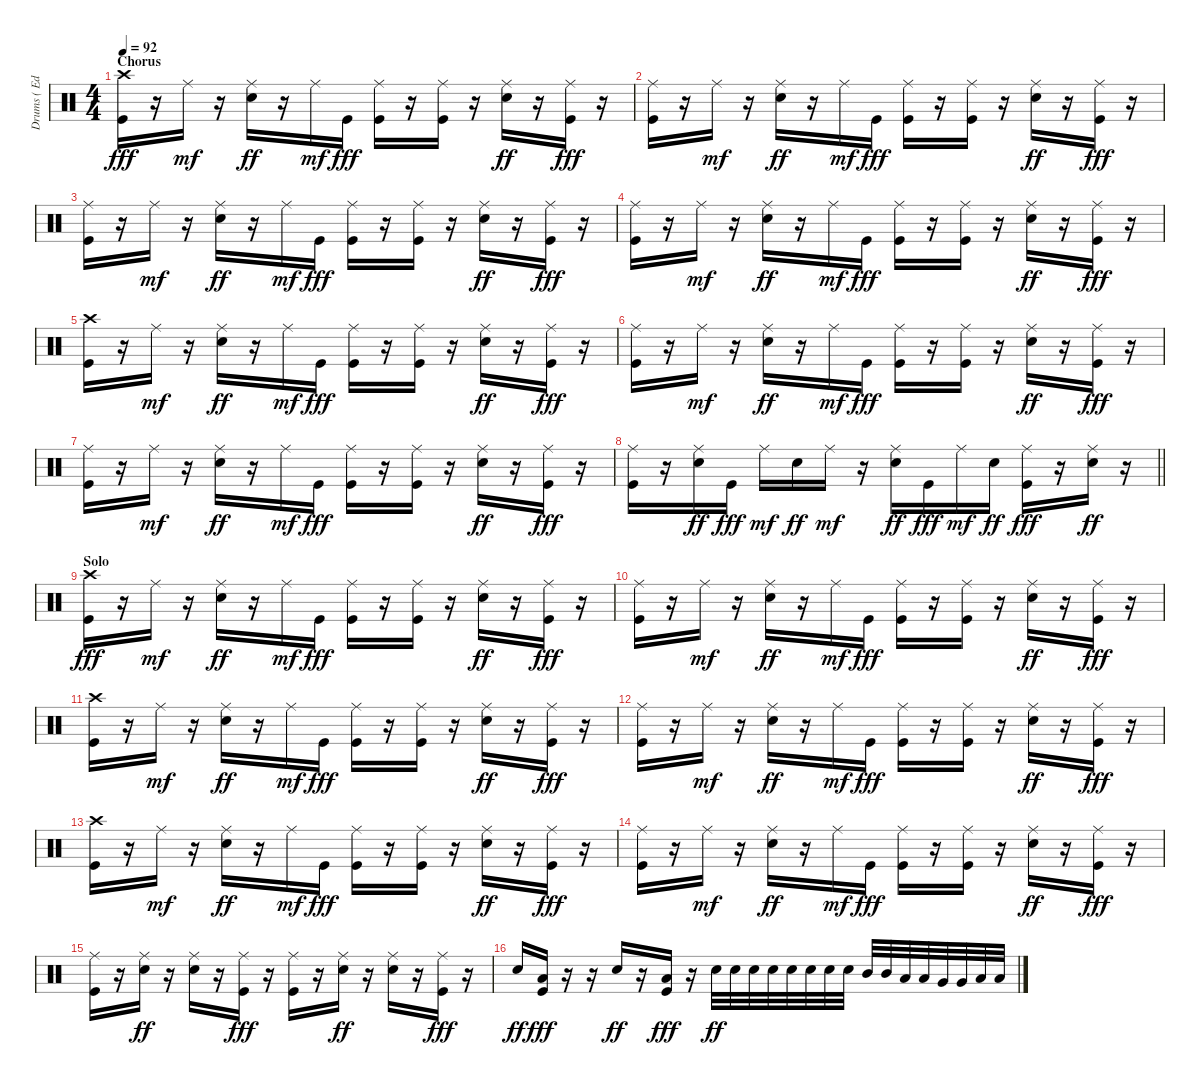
\track ("Drums ( Edward O'Brien )" "Drums ( Ed") {instrument percussion}
\staff {score}
\articulation defaults
\ts (4 4)
\section ("" "Chorus")
\tempo 92
\clef neutral
\ks c
("Crash high (hit)" "Kick (hit)").16{dy fff} r.16 "Ride (middle)".16{dy mf} r.16 ("Ride (middle)" "Electric Snare (hit)").16{dy ff} r.16 "Ride (middle)".16{dy mf} "Kick (hit)".16{dy fff} ("Ride (middle)" "Kick (hit)").16 r.16 ("Ride (middle)" "Kick (hit)").16 r.16 ("Ride (middle)" "Electric Snare (hit)").16{dy ff} r.16 ("Ride (middle)" "Kick (hit)").16{dy fff} r.16 |
("Ride (middle)" "Kick (hit)").16 r.16 "Ride (middle)".16{dy mf} r.16 ("Ride (middle)" "Electric Snare (hit)").16{dy ff} r.16 "Ride (middle)".16{dy mf} "Kick (hit)".16{dy fff} ("Ride (middle)" "Kick (hit)").16 r.16 ("Ride (middle)" "Kick (hit)").16 r.16 ("Ride (middle)" "Electric Snare (hit)").16{dy ff} r.16 ("Ride (middle)" "Kick (hit)").16{dy fff} r.16 |
("Ride (middle)" "Kick (hit)").16 r.16 "Ride (middle)".16{dy mf} r.16 ("Ride (middle)" "Electric Snare (hit)").16{dy ff} r.16 "Ride (middle)".16{dy mf} "Kick (hit)".16{dy fff} ("Ride (middle)" "Kick (hit)").16 r.16 ("Ride (middle)" "Kick (hit)").16 r.16 ("Ride (middle)" "Electric Snare (hit)").16{dy ff} r.16 ("Ride (middle)" "Kick (hit)").16{dy fff} r.16 |
("Ride (middle)" "Kick (hit)").16 r.16 "Ride (middle)".16{dy mf} r.16 ("Ride (middle)" "Electric Snare (hit)").16{dy ff} r.16 "Ride (middle)".16{dy mf} "Kick (hit)".16{dy fff} ("Ride (middle)" "Kick (hit)").16 r.16 ("Ride (middle)" "Kick (hit)").16 r.16 ("Ride (middle)" "Electric Snare (hit)").16{dy ff} r.16 ("Ride (middle)" "Kick (hit)").16{dy fff} r.16 |
("Crash high (hit)" "Kick (hit)").16 r.16 "Ride (middle)".16{dy mf} r.16 ("Ride (middle)" "Electric Snare (hit)").16{dy ff} r.16 "Ride (middle)".16{dy mf} "Kick (hit)".16{dy fff} ("Ride (middle)" "Kick (hit)").16 r.16 ("Ride (middle)" "Kick (hit)").16 r.16 ("Ride (middle)" "Electric Snare (hit)").16{dy ff} r.16 ("Ride (middle)" "Kick (hit)").16{dy fff} r.16 |
("Ride (middle)" "Kick (hit)").16 r.16 "Ride (middle)".16{dy mf} r.16 ("Ride (middle)" "Electric Snare (hit)").16{dy ff} r.16 "Ride (middle)".16{dy mf} "Kick (hit)".16{dy fff} ("Ride (middle)" "Kick (hit)").16 r.16 ("Ride (middle)" "Kick (hit)").16 r.16 ("Ride (middle)" "Electric Snare (hit)").16{dy ff} r.16 ("Ride (middle)" "Kick (hit)").16{dy fff} r.16 |
("Ride (middle)" "Kick (hit)").16 r.16 "Ride (middle)".16{dy mf} r.16 ("Ride (middle)" "Electric Snare (hit)").16{dy ff} r.16 "Ride (middle)".16{dy mf} "Kick (hit)".16{dy fff} ("Ride (middle)" "Kick (hit)").16 r.16 ("Ride (middle)" "Kick (hit)").16 r.16 ("Ride (middle)" "Electric Snare (hit)").16{dy ff} r.16 ("Ride (middle)" "Kick (hit)").16{dy fff} r.16 |
\barLineRight lightlight
("Ride (middle)" "Kick (hit)").16 r.16 ("Ride (middle)" "Electric Snare (hit)").16{dy ff} "Kick (hit)".16{dy fff} "Ride (middle)".16{dy mf} "Electric Snare (hit)".16{dy ff} "Ride (middle)".16{dy mf} r.16 ("Ride (middle)" "Electric Snare (hit)").16{dy ff} "Kick (hit)".16{dy fff} "Ride (middle)".16{dy mf} "Electric Snare (hit)".16{dy ff} ("Ride (middle)" "Kick (hit)").16{dy fff} r.16 ("Ride (middle)" "Electric Snare (hit)").16{dy ff} r.16 |
\section ("" "Solo")
("Crash high (hit)" "Kick (hit)").16{dy fff} r.16 "Ride (middle)".16{dy mf} r.16 ("Ride (middle)" "Electric Snare (hit)").16{dy ff} r.16 "Ride (middle)".16{dy mf} "Kick (hit)".16{dy fff} ("Ride (middle)" "Kick (hit)").16 r.16 ("Ride (middle)" "Kick (hit)").16 r.16 ("Ride (middle)" "Electric Snare (hit)").16{dy ff} r.16 ("Ride (middle)" "Kick (hit)").16{dy fff} r.16 |
("Ride (middle)" "Kick (hit)").16 r.16 "Ride (middle)".16{dy mf} r.16 ("Ride (middle)" "Electric Snare (hit)").16{dy ff} r.16 "Ride (middle)".16{dy mf} "Kick (hit)".16{dy fff} ("Ride (middle)" "Kick (hit)").16 r.16 ("Ride (middle)" "Kick (hit)").16 r.16 ("Ride (middle)" "Electric Snare (hit)").16{dy ff} r.16 ("Ride (middle)" "Kick (hit)").16{dy fff} r.16 |
("Crash high (hit)" "Kick (hit)").16 r.16 "Ride (middle)".16{dy mf} r.16 ("Ride (middle)" "Electric Snare (hit)").16{dy ff} r.16 "Ride (middle)".16{dy mf} "Kick (hit)".16{dy fff} ("Ride (middle)" "Kick (hit)").16 r.16 ("Ride (middle)" "Kick (hit)").16 r.16 ("Ride (middle)" "Electric Snare (hit)").16{dy ff} r.16 ("Ride (middle)" "Kick (hit)").16{dy fff} r.16 |
("Ride (middle)" "Kick (hit)").16 r.16 "Ride (middle)".16{dy mf} r.16 ("Ride (middle)" "Electric Snare (hit)").16{dy ff} r.16 "Ride (middle)".16{dy mf} "Kick (hit)".16{dy fff} ("Ride (middle)" "Kick (hit)").16 r.16 ("Ride (middle)" "Kick (hit)").16 r.16 ("Ride (middle)" "Electric Snare (hit)").16{dy ff} r.16 ("Ride (middle)" "Kick (hit)").16{dy fff} r.16 |
("Crash high (hit)" "Kick (hit)").16 r.16 "Ride (middle)".16{dy mf} r.16 ("Ride (middle)" "Electric Snare (hit)").16{dy ff} r.16 "Ride (middle)".16{dy mf} "Kick (hit)".16{dy fff} ("Ride (middle)" "Kick (hit)").16 r.16 ("Ride (middle)" "Kick (hit)").16 r.16 ("Ride (middle)" "Electric Snare (hit)").16{dy ff} r.16 ("Ride (middle)" "Kick (hit)").16{dy fff} r.16 |
("Ride (middle)" "Kick (hit)").16 r.16 "Ride (middle)".16{dy mf} r.16 ("Ride (middle)" "Electric Snare (hit)").16{dy ff} r.16 "Ride (middle)".16{dy mf} "Kick (hit)".16{dy fff} ("Ride (middle)" "Kick (hit)").16 r.16 ("Ride (middle)" "Kick (hit)").16 r.16 ("Ride (middle)" "Electric Snare (hit)").16{dy ff} r.16 ("Ride (middle)" "Kick (hit)").16{dy fff} r.16 |
("Ride (middle)" "Kick (hit)").16 r.16 ("Ride (middle)" "Electric Snare (hit)").16{dy ff} r.16 ("Ride (middle)" "Electric Snare (hit)").16 r.16 ("Ride (middle)" "Kick (hit)").16{dy fff} r.16 ("Ride (middle)" "Kick (hit)").16 r.16 ("Ride (middle)" "Electric Snare (hit)").16{dy ff} r.16 ("Ride (middle)" "Electric Snare (hit)").16 r.16 ("Ride (middle)" "Kick (hit)").16{dy fff} r.16 |
"Electric Snare (hit)".16{dy ff} ("Low Floor Tom (hit)" "Kick (hit)").16{dy fff} r.16 r.16 "Electric Snare (hit)".16{dy ff} r.16 ("Low Floor Tom (hit)" "Kick (hit)").16{dy fff} r.16 "Electric Snare (hit)".32{dy ff} "Electric Snare (hit)".32 "Electric Snare (hit)".32 "Electric Snare (hit)".32 "Electric Snare (hit)".32 "Electric Snare (hit)".32 "Electric Snare (hit)".32 "Electric Snare (hit)".32 "Mid Tom (hit)".32 "Mid Tom (hit)".32 "Low Tom (hit)".32 "Low Tom (hit)".32 "Very Low Tom (hit)".32 "Very Low Tom (hit)".32 "Low Floor Tom (hit)".32 "Low Floor Tom (hit)".32
